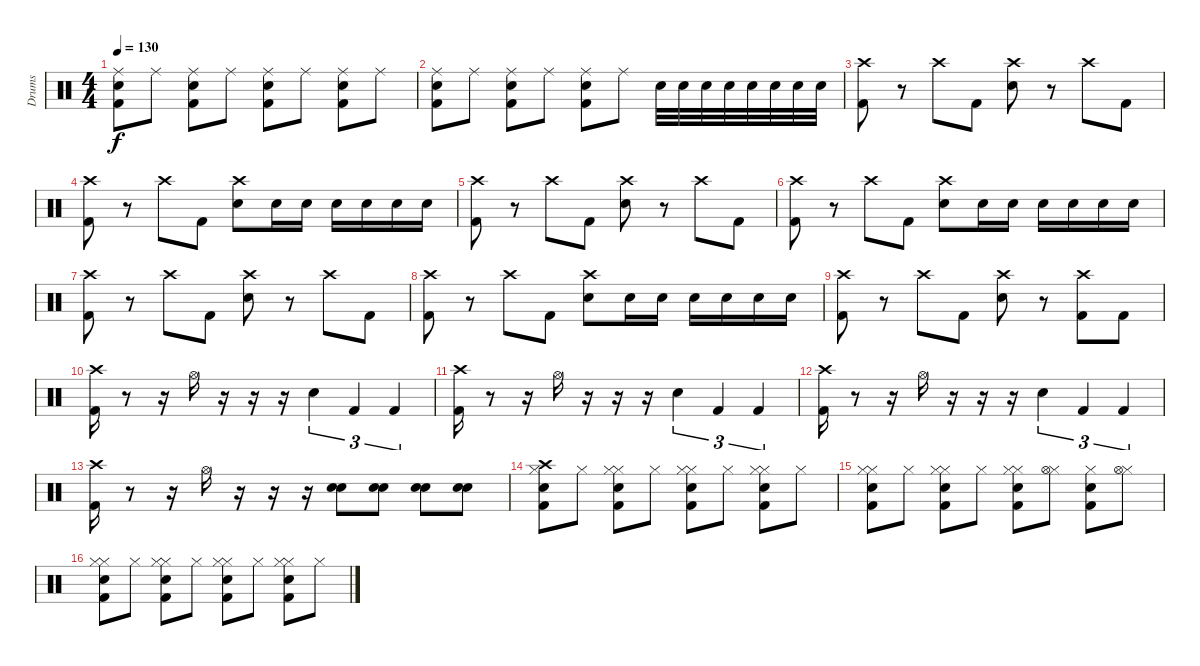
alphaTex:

\track ("Drums" "Drums") {instrument percussion}
\staff {score}
\articulation defaults
\ts (4 4)
\tempo 130
\clef neutral
\ks c
("Ride (middle)" "Electric Snare (hit)" "Kick (hit) 2").8{dy f} "Ride (middle)".8 ("Ride (middle)" "Electric Snare (hit)" "Kick (hit) 2").8 "Ride (middle)".8 ("Ride (middle)" "Electric Snare (hit)" "Kick (hit) 2").8 "Ride (middle)".8 ("Ride (middle)" "Electric Snare (hit)" "Kick (hit) 2").8 "Ride (middle)".8 |
("Ride (middle)" "Electric Snare (hit)" "Kick (hit) 2").8 "Ride (middle)".8 ("Ride (middle)" "Electric Snare (hit)" "Kick (hit) 2").8 "Ride (middle)".8 ("Ride (middle)" "Electric Snare (hit)" "Kick (hit) 2").8 "Ride (middle)".8 "Electric Snare (hit)".32 "Electric Snare (hit)".32 "Electric Snare (hit)".32 "Electric Snare (hit)".32 "Electric Snare (hit)".32 "Electric Snare (hit)".32 "Electric Snare (hit)".32 "Electric Snare (hit)".32 |
("Crash high (hit)" "Kick (hit) 2").8 r.8 "Crash high (hit)".8 "Kick (hit) 2".8 ("Crash high (hit)" "Electric Snare (hit)").8 r.8 "Crash high (hit)".8 "Kick (hit) 2".8 |
("Crash high (hit)" "Kick (hit) 2").8 r.8 "Crash high (hit)".8 "Kick (hit) 2".8 ("Crash high (hit)" "Electric Snare (hit)").8 "Electric Snare (hit)".16 "Electric Snare (hit)".16 "Electric Snare (hit)".16 "Electric Snare (hit)".16 "Electric Snare (hit)".16 "Electric Snare (hit)".16 |
("Crash high (hit)" "Kick (hit) 2").8 r.8 "Crash high (hit)".8 "Kick (hit) 2".8 ("Crash high (hit)" "Electric Snare (hit)").8 r.8 "Crash high (hit)".8 "Kick (hit) 2".8 |
("Crash high (hit)" "Kick (hit) 2").8 r.8 "Crash high (hit)".8 "Kick (hit) 2".8 ("Crash high (hit)" "Electric Snare (hit)").8 "Electric Snare (hit)".16 "Electric Snare (hit)".16 "Electric Snare (hit)".16 "Electric Snare (hit)".16 "Electric Snare (hit)".16 "Electric Snare (hit)".16 |
("Crash high (hit)" "Kick (hit) 2").8 r.8 "Crash high (hit)".8 "Kick (hit) 2".8 ("Crash high (hit)" "Electric Snare (hit)").8 r.8 "Crash high (hit)".8 "Kick (hit) 2".8 |
("Crash high (hit)" "Kick (hit) 2").8 r.8 "Crash high (hit)".8 "Kick (hit) 2".8 ("Crash high (hit)" "Electric Snare (hit)").8 "Electric Snare (hit)".16 "Electric Snare (hit)".16 "Electric Snare (hit)".16 "Electric Snare (hit)".16 "Electric Snare (hit)".16 "Electric Snare (hit)".16 |
("Crash high (hit)" "Kick (hit) 2").8 r.8 "Crash high (hit)".8 "Kick (hit) 2".8 ("Crash high (hit)" "Electric Snare (hit)").8 r.8 ("Crash high (hit)" "Kick (hit) 2").8 "Kick (hit) 2".8 |
("Crash high (hit)" "Kick (hit) 2").16 r.8 r.16 "Hi-Hat (open)".16 r.16 r.16 r.16 "Electric Snare (hit)".4{tu (3 2)} "Kick (hit) 2".4{tu (3 2)} "Kick (hit) 2".4{tu (3 2)} |
("Crash high (hit)" "Kick (hit) 2").16 r.8 r.16 "Hi-Hat (open)".16 r.16 r.16 r.16 "Electric Snare (hit)".4{tu (3 2)} "Kick (hit) 2".4{tu (3 2)} "Kick (hit) 2".4{tu (3 2)} |
("Crash high (hit)" "Kick (hit) 2").16 r.8 r.16 "Hi-Hat (open)".16 r.16 r.16 r.16 "Electric Snare (hit)".4{tu (3 2)} "Kick (hit) 2".4{tu (3 2)} "Kick (hit) 2".4{tu (3 2)} |
("Crash high (hit)" "Kick (hit) 2").16 r.8 r.16 "Hi-Hat (open)".16 r.16 r.16 r.16 ("Snare (hit) 2" "Electric Snare (hit)").8 ("Snare (hit) 2" "Electric Snare (hit)").8 ("Snare (hit) 2" "Electric Snare (hit)").8 ("Snare (hit) 2" "Electric Snare (hit)").8 |
("Hi-Hat (closed)" "Crash high (hit)" "Electric Snare (hit)" "Kick (hit) 2").8 "Hi-Hat (closed)".8 ("Hi-Hat (closed)" "Hi-Hat (closed)" "Electric Snare (hit)" "Kick (hit) 2").8 "Hi-Hat (closed)".8 ("Hi-Hat (closed)" "Hi-Hat (closed)" "Electric Snare (hit)" "Kick (hit) 2").8 "Hi-Hat (closed)".8 ("Hi-Hat (closed)" "Hi-Hat (closed)" "Electric Snare (hit)" "Kick (hit) 2").8 "Hi-Hat (closed)".8 |
("Hi-Hat (closed)" "Hi-Hat (closed)" "Electric Snare (hit)" "Kick (hit) 2").8 "Hi-Hat (closed)".8 ("Hi-Hat (closed)" "Hi-Hat (closed)" "Electric Snare (hit)" "Kick (hit) 2").8 "Hi-Hat (closed)".8 ("Hi-Hat (closed)" "Hi-Hat (closed)" "Electric Snare (hit)" "Kick (hit) 2").8 ("Hi-Hat (closed)" "Hi-Hat (open)").8 ("Hi-Hat (closed)" "Electric Snare (hit)" "Kick (hit) 2").8 ("Hi-Hat (closed)" "Hi-Hat (open)").8 |
("Hi-Hat (closed)" "Hi-Hat (closed)" "Electric Snare (hit)" "Kick (hit) 2").8 "Hi-Hat (closed)".8 ("Hi-Hat (closed)" "Hi-Hat (closed)" "Electric Snare (hit)" "Kick (hit) 2").8 "Hi-Hat (closed)".8 ("Hi-Hat (closed)" "Hi-Hat (closed)" "Electric Snare (hit)" "Kick (hit) 2").8 "Hi-Hat (closed)".8 ("Hi-Hat (closed)" "Hi-Hat (closed)" "Electric Snare (hit)" "Kick (hit) 2").8 "Hi-Hat (closed)".8
